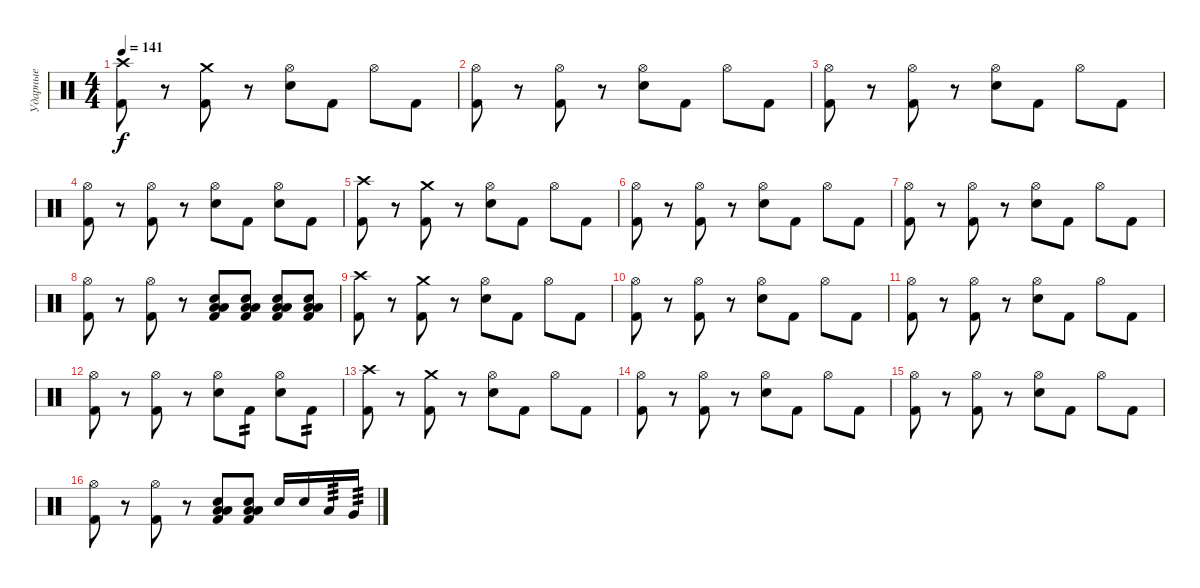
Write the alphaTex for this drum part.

\track ("Ударные" "Ударные") {instrument percussion}
\staff {score}
\articulation defaults
\ts (4 4)
\tempo 141
\clef neutral
\ks c
("Crash high (hit)" "Kick (hit) 2").8{dy f} r.8 ("Crash medium (hit)" "Kick (hit) 2").8 r.8 ("Hi-Hat (open)" "Snare (hit) 2").8 "Kick (hit) 2".8 "Hi-Hat (open)".8 "Kick (hit) 2".8 |
("Hi-Hat (open)" "Kick (hit) 2").8 r.8 ("Hi-Hat (open)" "Kick (hit) 2").8 r.8 ("Hi-Hat (open)" "Snare (hit) 2").8 "Kick (hit) 2".8 "Hi-Hat (open)".8 "Kick (hit) 2".8 |
("Hi-Hat (open)" "Kick (hit) 2").8 r.8 ("Hi-Hat (open)" "Kick (hit) 2").8 r.8 ("Hi-Hat (open)" "Snare (hit) 2").8 "Kick (hit) 2".8 "Hi-Hat (open)".8 "Kick (hit) 2".8 |
("Hi-Hat (open)" "Kick (hit) 2").8 r.8 ("Hi-Hat (open)" "Kick (hit) 2").8 r.8 ("Hi-Hat (open)" "Snare (hit) 2").8 "Kick (hit) 2".8 ("Hi-Hat (open)" "Snare (hit) 2").8 "Kick (hit) 2".8 |
("Crash high (hit)" "Kick (hit) 2").8 r.8 ("Crash medium (hit)" "Kick (hit) 2").8 r.8 ("Hi-Hat (open)" "Snare (hit) 2").8 "Kick (hit) 2".8 "Hi-Hat (open)".8 "Kick (hit) 2".8 |
("Hi-Hat (open)" "Kick (hit) 2").8 r.8 ("Hi-Hat (open)" "Kick (hit) 2").8 r.8 ("Hi-Hat (open)" "Snare (hit) 2").8 "Kick (hit) 2".8 "Hi-Hat (open)".8 "Kick (hit) 2".8 |
("Hi-Hat (open)" "Kick (hit) 2").8 r.8 ("Hi-Hat (open)" "Kick (hit) 2").8 r.8 ("Hi-Hat (open)" "Snare (hit) 2").8 "Kick (hit) 2".8 "Hi-Hat (open)".8 "Kick (hit) 2".8 |
("Hi-Hat (open)" "Kick (hit) 2").8 r.8 ("Hi-Hat (open)" "Kick (hit) 2").8 r.8 ("Snare (hit) 2" "Low Tom (hit)" "Low Tom (hit)" "Kick (hit) 2").8 ("Snare (hit) 2" "Low Tom (hit)" "Low Tom (hit)" "Kick (hit) 2").8 ("Snare (hit) 2" "Low Tom (hit)" "Low Tom (hit)" "Kick (hit) 2").8 ("Snare (hit) 2" "Low Tom (hit)" "Low Tom (hit)" "Kick (hit) 2").8 |
("Crash high (hit)" "Kick (hit) 2").8 r.8 ("Crash medium (hit)" "Kick (hit) 2").8 r.8 ("Hi-Hat (open)" "Snare (hit) 2").8 "Kick (hit) 2".8 "Hi-Hat (open)".8 "Kick (hit) 2".8 |
("Hi-Hat (open)" "Kick (hit) 2").8 r.8 ("Hi-Hat (open)" "Kick (hit) 2").8 r.8 ("Hi-Hat (open)" "Snare (hit) 2").8 "Kick (hit) 2".8 "Hi-Hat (open)".8 "Kick (hit) 2".8 |
("Hi-Hat (open)" "Kick (hit) 2").8 r.8 ("Hi-Hat (open)" "Kick (hit) 2").8 r.8 ("Hi-Hat (open)" "Snare (hit) 2").8 "Kick (hit) 2".8 "Hi-Hat (open)".8 "Kick (hit) 2".8 |
("Hi-Hat (open)" "Kick (hit) 2").8 r.8 ("Hi-Hat (open)" "Kick (hit) 2").8 r.8 ("Hi-Hat (open)" "Snare (hit) 2").8 "Kick (hit) 2".8{tp 2} ("Hi-Hat (open)" "Snare (hit) 2").8 "Kick (hit) 2".8{tp 2} |
("Crash high (hit)" "Kick (hit) 2").8 r.8 ("Crash medium (hit)" "Kick (hit) 2").8 r.8 ("Hi-Hat (open)" "Snare (hit) 2").8 "Kick (hit) 2".8 "Hi-Hat (open)".8 "Kick (hit) 2".8 |
("Hi-Hat (open)" "Kick (hit) 2").8 r.8 ("Hi-Hat (open)" "Kick (hit) 2").8 r.8 ("Hi-Hat (open)" "Snare (hit) 2").8 "Kick (hit) 2".8 "Hi-Hat (open)".8 "Kick (hit) 2".8 |
("Hi-Hat (open)" "Kick (hit) 2").8 r.8 ("Hi-Hat (open)" "Kick (hit) 2").8 r.8 ("Hi-Hat (open)" "Snare (hit) 2").8 "Kick (hit) 2".8 "Hi-Hat (open)".8 "Kick (hit) 2".8 |
("Hi-Hat (open)" "Kick (hit) 2").8 r.8 ("Hi-Hat (open)" "Kick (hit) 2").8 r.8 ("Snare (hit) 2" "Low Tom (hit)" "Low Tom (hit)" "Kick (hit) 2").8 ("Snare (hit) 2" "Low Tom (hit)" "Low Tom (hit)" "Kick (hit) 2").8 "Snare (hit) 2".16 "Snare (hit) 2".16 "Low Tom (hit)".16{tp 3} "Very Low Tom (hit)".16{tp 3}
